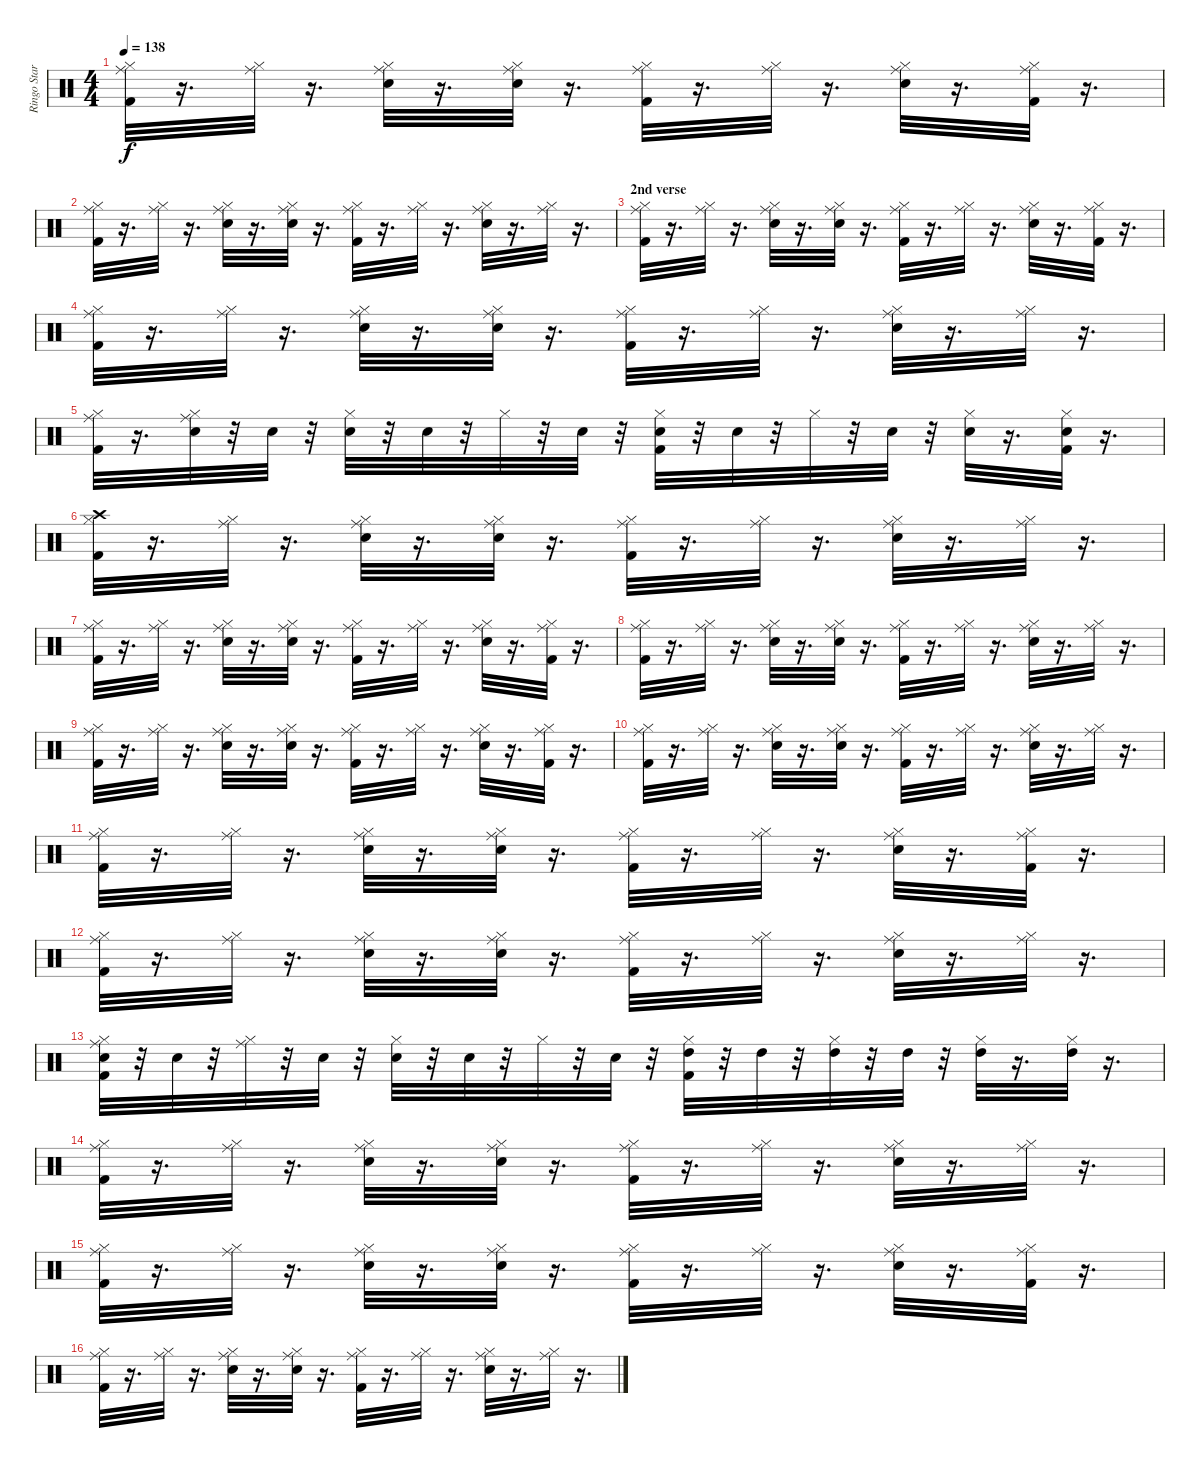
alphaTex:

\track ("Ringo Starr" "Ringo Star") {instrument percussion}
\staff {score}
\articulation defaults
\ts (4 4)
\tempo 138
\clef neutral
\ks c
("Kick (hit) 2" "Ride (middle)" "Hi-Hat (closed)").32{dy f} r.16{d} ("Hi-Hat (closed)" "Ride (middle)").32 r.16{d} ("Snare (hit) 2" "Ride (middle)" "Hi-Hat (closed)").32 r.16{d} ("Snare (hit) 2" "Ride (middle)" "Hi-Hat (closed)").32 r.16{d} ("Kick (hit) 2" "Ride (middle)" "Hi-Hat (closed)").32 r.16{d} ("Hi-Hat (closed)" "Ride (middle)").32 r.16{d} ("Snare (hit) 2" "Ride (middle)" "Hi-Hat (closed)").32 r.16{d} ("Kick (hit) 2" "Ride (middle)" "Hi-Hat (closed)").32 r.16{d} |
("Kick (hit) 2" "Ride (middle)" "Hi-Hat (closed)").32 r.16{d} ("Hi-Hat (closed)" "Ride (middle)").32 r.16{d} ("Snare (hit) 2" "Ride (middle)" "Hi-Hat (closed)").32 r.16{d} ("Snare (hit) 2" "Ride (middle)" "Hi-Hat (closed)").32 r.16{d} ("Kick (hit) 2" "Ride (middle)" "Hi-Hat (closed)").32 r.16{d} ("Hi-Hat (closed)" "Ride (middle)").32 r.16{d} ("Snare (hit) 2" "Ride (middle)" "Hi-Hat (closed)").32 r.16{d} ("Hi-Hat (closed)" "Ride (middle)").32 r.16{d} |
\section ("" "2nd verse")
("Kick (hit) 2" "Ride (middle)" "Hi-Hat (closed)").32 r.16{d} ("Hi-Hat (closed)" "Ride (middle)").32 r.16{d} ("Snare (hit) 2" "Ride (middle)" "Hi-Hat (closed)").32 r.16{d} ("Snare (hit) 2" "Ride (middle)" "Hi-Hat (closed)").32 r.16{d} ("Kick (hit) 2" "Ride (middle)" "Hi-Hat (closed)").32 r.16{d} ("Hi-Hat (closed)" "Ride (middle)").32 r.16{d} ("Snare (hit) 2" "Ride (middle)" "Hi-Hat (closed)").32 r.16{d} ("Kick (hit) 2" "Ride (middle)" "Hi-Hat (closed)").32 r.16{d} |
("Kick (hit) 2" "Hi-Hat (closed)" "Ride (middle)").32 r.16{d} ("Hi-Hat (closed)" "Ride (middle)").32 r.16{d} ("Snare (hit) 2" "Ride (middle)" "Hi-Hat (closed)").32 r.16{d} ("Snare (hit) 2" "Ride (middle)" "Hi-Hat (closed)").32 r.16{d} ("Kick (hit) 2" "Ride (middle)" "Hi-Hat (closed)").32 r.16{d} ("Hi-Hat (closed)" "Ride (middle)").32 r.16{d} ("Snare (hit) 2" "Ride (middle)" "Hi-Hat (closed)").32 r.16{d} ("Hi-Hat (closed)" "Ride (middle)").32 r.16{d} |
("Kick (hit) 2" "Ride (middle)" "Hi-Hat (closed)").32 r.16{d} ("Snare (hit) 2" "Ride (middle)" "Hi-Hat (closed)").32 r.32 "Snare (hit) 2".32 r.32 ("Snare (hit) 2" "Hi-Hat (closed)").32 r.32 "Snare (hit) 2".32 r.32 "Hi-Hat (closed)".32 r.32 "Snare (hit) 2".32 r.32 ("Kick (hit) 2" "Snare (hit) 2" "Hi-Hat (closed)").32 r.32 "Snare (hit) 2".32 r.32 "Hi-Hat (closed)".32 r.32 "Snare (hit) 2".32 r.32 ("Snare (hit) 2" "Hi-Hat (closed)").32 r.16{d} ("Kick (hit) 2" "Snare (hit) 2" "Hi-Hat (closed)").32 r.16{d} |
("Kick (hit) 2" "Hi-Hat (closed)" "Crash high (hit)").32 r.16{d} ("Hi-Hat (closed)" "Ride (middle)").32 r.16{d} ("Snare (hit) 2" "Ride (middle)" "Hi-Hat (closed)").32 r.16{d} ("Snare (hit) 2" "Ride (middle)" "Hi-Hat (closed)").32 r.16{d} ("Kick (hit) 2" "Ride (middle)" "Hi-Hat (closed)").32 r.16{d} ("Hi-Hat (closed)" "Ride (middle)").32 r.16{d} ("Snare (hit) 2" "Ride (middle)" "Hi-Hat (closed)").32 r.16{d} ("Hi-Hat (closed)" "Ride (middle)").32 r.16{d} |
("Kick (hit) 2" "Ride (middle)" "Hi-Hat (closed)").32 r.16{d} ("Hi-Hat (closed)" "Ride (middle)").32 r.16{d} ("Snare (hit) 2" "Ride (middle)" "Hi-Hat (closed)").32 r.16{d} ("Snare (hit) 2" "Ride (middle)" "Hi-Hat (closed)").32 r.16{d} ("Kick (hit) 2" "Ride (middle)" "Hi-Hat (closed)").32 r.16{d} ("Hi-Hat (closed)" "Ride (middle)").32 r.16{d} ("Snare (hit) 2" "Ride (middle)" "Hi-Hat (closed)").32 r.16{d} ("Kick (hit) 2" "Ride (middle)" "Hi-Hat (closed)").32 r.16{d} |
("Kick (hit) 2" "Hi-Hat (closed)" "Ride (middle)").32 r.16{d} ("Hi-Hat (closed)" "Ride (middle)").32 r.16{d} ("Snare (hit) 2" "Ride (middle)" "Hi-Hat (closed)").32 r.16{d} ("Snare (hit) 2" "Ride (middle)" "Hi-Hat (closed)").32 r.16{d} ("Kick (hit) 2" "Ride (middle)" "Hi-Hat (closed)").32 r.16{d} ("Hi-Hat (closed)" "Ride (middle)").32 r.16{d} ("Snare (hit) 2" "Ride (middle)" "Hi-Hat (closed)").32 r.16{d} ("Hi-Hat (closed)" "Ride (middle)").32 r.16{d} |
("Kick (hit) 2" "Ride (middle)" "Hi-Hat (closed)").32 r.16{d} ("Hi-Hat (closed)" "Ride (middle)").32 r.16{d} ("Snare (hit) 2" "Ride (middle)" "Hi-Hat (closed)").32 r.16{d} ("Snare (hit) 2" "Ride (middle)" "Hi-Hat (closed)").32 r.16{d} ("Kick (hit) 2" "Ride (middle)" "Hi-Hat (closed)").32 r.16{d} ("Hi-Hat (closed)" "Ride (middle)").32 r.16{d} ("Snare (hit) 2" "Ride (middle)" "Hi-Hat (closed)").32 r.16{d} ("Kick (hit) 2" "Ride (middle)" "Hi-Hat (closed)").32 r.16{d} |
("Kick (hit) 2" "Hi-Hat (closed)" "Ride (middle)").32 r.16{d} ("Hi-Hat (closed)" "Ride (middle)").32 r.16{d} ("Snare (hit) 2" "Ride (middle)" "Hi-Hat (closed)").32 r.16{d} ("Snare (hit) 2" "Ride (middle)" "Hi-Hat (closed)").32 r.16{d} ("Kick (hit) 2" "Ride (middle)" "Hi-Hat (closed)").32 r.16{d} ("Hi-Hat (closed)" "Ride (middle)").32 r.16{d} ("Snare (hit) 2" "Ride (middle)" "Hi-Hat (closed)").32 r.16{d} ("Hi-Hat (closed)" "Ride (middle)").32 r.16{d} |
("Kick (hit) 2" "Ride (middle)" "Hi-Hat (closed)").32 r.16{d} ("Hi-Hat (closed)" "Ride (middle)").32 r.16{d} ("Snare (hit) 2" "Ride (middle)" "Hi-Hat (closed)").32 r.16{d} ("Snare (hit) 2" "Ride (middle)" "Hi-Hat (closed)").32 r.16{d} ("Kick (hit) 2" "Ride (middle)" "Hi-Hat (closed)").32 r.16{d} ("Hi-Hat (closed)" "Ride (middle)").32 r.16{d} ("Snare (hit) 2" "Ride (middle)" "Hi-Hat (closed)").32 r.16{d} ("Kick (hit) 2" "Ride (middle)" "Hi-Hat (closed)").32 r.16{d} |
("Kick (hit) 2" "Hi-Hat (closed)" "Ride (middle)").32 r.16{d} ("Hi-Hat (closed)" "Ride (middle)").32 r.16{d} ("Snare (hit) 2" "Ride (middle)" "Hi-Hat (closed)").32 r.16{d} ("Snare (hit) 2" "Ride (middle)" "Hi-Hat (closed)").32 r.16{d} ("Kick (hit) 2" "Ride (middle)" "Hi-Hat (closed)").32 r.16{d} ("Hi-Hat (closed)" "Ride (middle)").32 r.16{d} ("Snare (hit) 2" "Ride (middle)" "Hi-Hat (closed)").32 r.16{d} ("Hi-Hat (closed)" "Ride (middle)").32 r.16{d} |
("Kick (hit) 2" "Snare (hit) 2" "Hi-Hat (closed)" "Ride (middle)").32 r.32 "Snare (hit) 2".32 r.32 ("Hi-Hat (closed)" "Ride (middle)").32 r.32 "Snare (hit) 2".32 r.32 ("Snare (hit) 2" "Hi-Hat (closed)").32 r.32 "Snare (hit) 2".32 r.32 "Hi-Hat (closed)".32 r.32 "Snare (hit) 2".32 r.32 ("Kick (hit) 2" "High Tom (hit)" "Hi-Hat (closed)").32 r.32 "High Tom (hit)".32 r.32 ("Hi-Hat (closed)" "High Tom (hit)").32 r.32 "High Tom (hit)".32 r.32 ("Hi-Hat (closed)" "High Tom (hit)").32 r.16{d} ("Hi-Hat (closed)" "High Tom (hit)").32 r.16{d} |
("Kick (hit) 2" "Hi-Hat (closed)" "Ride (middle)").32 r.16{d} ("Hi-Hat (closed)" "Ride (middle)").32 r.16{d} ("Snare (hit) 2" "Ride (middle)" "Hi-Hat (closed)").32 r.16{d} ("Snare (hit) 2" "Ride (middle)" "Hi-Hat (closed)").32 r.16{d} ("Kick (hit) 2" "Ride (middle)" "Hi-Hat (closed)").32 r.16{d} ("Hi-Hat (closed)" "Ride (middle)").32 r.16{d} ("Snare (hit) 2" "Ride (middle)" "Hi-Hat (closed)").32 r.16{d} ("Hi-Hat (closed)" "Ride (middle)").32 r.16{d} |
("Kick (hit) 2" "Ride (middle)" "Hi-Hat (closed)").32 r.16{d} ("Hi-Hat (closed)" "Ride (middle)").32 r.16{d} ("Snare (hit) 2" "Ride (middle)" "Hi-Hat (closed)").32 r.16{d} ("Snare (hit) 2" "Ride (middle)" "Hi-Hat (closed)").32 r.16{d} ("Kick (hit) 2" "Ride (middle)" "Hi-Hat (closed)").32 r.16{d} ("Hi-Hat (closed)" "Ride (middle)").32 r.16{d} ("Snare (hit) 2" "Ride (middle)" "Hi-Hat (closed)").32 r.16{d} ("Kick (hit) 2" "Ride (middle)" "Hi-Hat (closed)").32 r.16{d} |
("Kick (hit) 2" "Ride (middle)" "Hi-Hat (closed)").32 r.16{d} ("Hi-Hat (closed)" "Ride (middle)").32 r.16{d} ("Snare (hit) 2" "Ride (middle)" "Hi-Hat (closed)").32 r.16{d} ("Snare (hit) 2" "Ride (middle)" "Hi-Hat (closed)").32 r.16{d} ("Kick (hit) 2" "Ride (middle)" "Hi-Hat (closed)").32 r.16{d} ("Hi-Hat (closed)" "Ride (middle)").32 r.16{d} ("Snare (hit) 2" "Ride (middle)" "Hi-Hat (closed)").32 r.16{d} ("Hi-Hat (closed)" "Ride (middle)").32 r.16{d}
